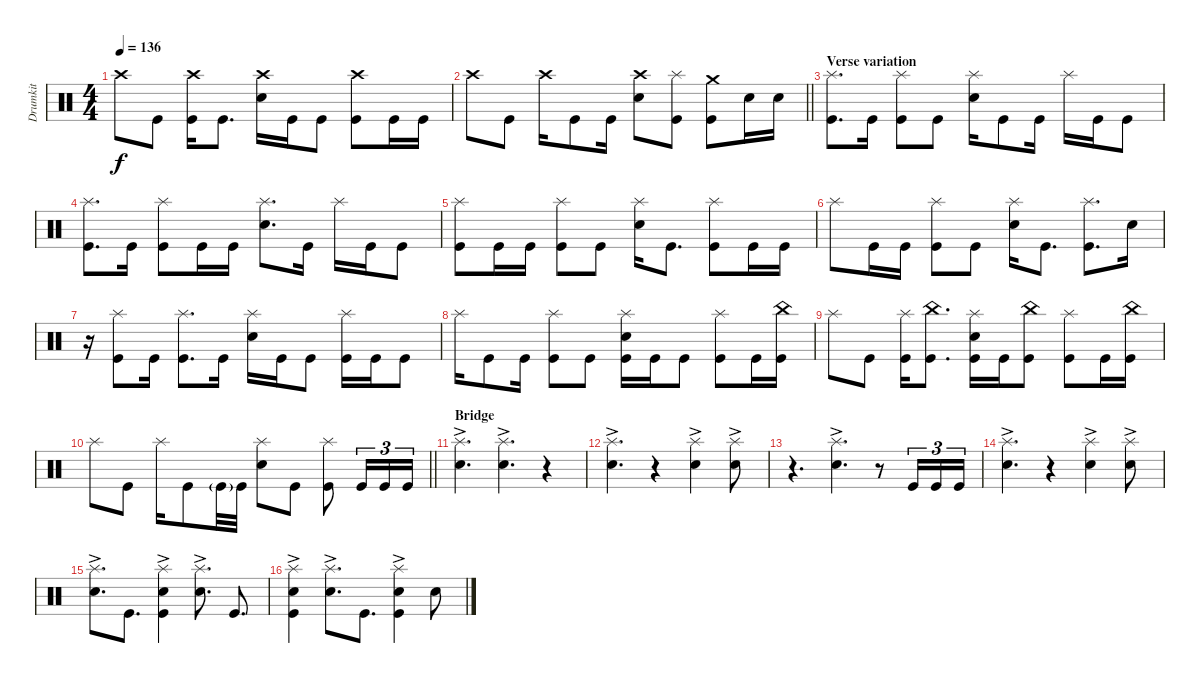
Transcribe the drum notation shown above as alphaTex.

\track ("Drumkit" "Drumkit") {instrument percussion}
\staff {score}
\articulation defaults
\ts (4 4)
\tempo 136
\clef neutral
\ks c "Crash high (hit)".8{dy f} "Kick (hit)".8
("Crash high (hit)" "Kick (hit)").16 "Kick (hit)".8{d} ("Crash high (hit)" "Snare (hit) 2").16 "Kick (hit)".16 "Kick (hit)".8 ("Crash high (hit)" "Kick (hit)").8 "Kick (hit)".16 "Kick (hit)".16 |
\barLineRight lightlight "Crash high (hit)".8 "Kick (hit)".8 "Crash high (hit)".16 "Kick (hit)".8 "Kick (hit)".16
("Crash high (hit)" "Snare (hit) 2").8 ("Kick (hit)" "Splash (hit)").8 ("Kick (hit)" "Crash medium (hit)").8 "Snare (hit) 2".16 "Snare (hit) 2".16 |
\section ("" "Verse variation")
("Splash (hit)" "Kick (hit)").8{d} "Kick (hit)".16 ("Splash (hit)" "Kick (hit)").8 "Kick (hit)".8 ("Splash (hit)" "Snare (hit) 2").16 "Kick (hit)".8 "Kick (hit)".16 "Splash (hit)".16 "Kick (hit)".16 "Kick (hit)".8 |
("Splash (hit)" "Kick (hit)").8{d} "Kick (hit)".16 ("Splash (hit)" "Kick (hit)").8 "Kick (hit)".16 "Kick (hit)".16 ("Splash (hit)" "Snare (hit) 2").8{d} "Kick (hit)".16 "Splash (hit)".16 "Kick (hit)".16 "Kick (hit)".8 |
("Splash (hit)" "Kick (hit)").8 "Kick (hit)".16 "Kick (hit)".16 ("Splash (hit)" "Kick (hit)").8 "Kick (hit)".8 ("Splash (hit)" "Snare (hit) 2").16 "Kick (hit)".8{d} ("Splash (hit)" "Kick (hit)").8 "Kick (hit)".16 "Kick (hit)".16 |
"Splash (hit)".8 "Kick (hit)".16 "Kick (hit)".16 ("Splash (hit)" "Kick (hit)").8 "Kick (hit)".8 ("Splash (hit)" "Snare (hit) 2").16 "Kick (hit)".8{d} ("Splash (hit)" "Kick (hit)").8{d} "Snare (hit) 2".16 |
r.16 ("Kick (hit)" "Splash (hit)").8 "Kick (hit)".16 ("Kick (hit)" "Splash (hit)").8{d} "Kick (hit)".16 ("Snare (hit) 2" "Splash (hit)").16 "Kick (hit)".16 "Kick (hit)".8 ("Kick (hit)" "Splash (hit)").16 "Kick (hit)".16 "Kick (hit)".8 |
"Splash (hit)".16 "Kick (hit)".8 "Kick (hit)".16 ("Kick (hit)" "Splash (hit)").8 "Kick (hit)".8 ("Kick (hit)" "Splash (hit)" "Snare (hit) 2").16 "Kick (hit)".16 "Kick (hit)".8 ("Kick (hit)" "Splash (hit)").8 "Kick (hit)".16 ("Kick (hit)" "China (hit)").16 |
"Splash (hit)".8 "Kick (hit)".8 ("Kick (hit)" "Splash (hit)").16 ("Kick (hit)" "China (hit)").8{d} ("Kick (hit)" "Splash (hit)" "Snare (hit) 2").16 "Kick (hit)".16 ("Kick (hit)" "China (hit)").8 ("Kick (hit)" "Splash (hit)").8 "Kick (hit)".16 ("Kick (hit)" "China (hit)").16 |
\barLineRight lightlight "Splash (hit)".8 "Kick (hit)".8 "Splash (hit)".16 "Kick (hit)".8 "Kick (hit)"{g}.32 "Kick (hit)".32
("Splash (hit)" "Snare (hit) 2").8 "Kick (hit)".8 ("Kick (hit)" "Splash (hit)").8 "Kick (hit)".16{tu (3 2)} "Kick (hit)".16{tu (3 2)} "Kick (hit)".16{tu (3 2)} |
\section ("" "Bridge")
("Splash (hit)" "Snare (hit) 2"{ac}).4{d} ("Splash (hit)" "Snare (hit) 2"{ac}).4{d} r.4 |
("Splash (hit)" "Snare (hit) 2"{ac}).4{d} r.4 ("Splash (hit)" "Snare (hit) 2"{ac}).4 ("Splash (hit)" "Snare (hit) 2"{ac}).8 |
r.4{d} ("Splash (hit)" "Snare (hit) 2"{ac}).4{d} r.8 "Kick (hit)".16{tu (3 2)} "Kick (hit)".16{tu (3 2)} "Kick (hit)".16{tu (3 2)} |
("Splash (hit)" "Snare (hit) 2"{ac}).4{d} r.4 ("Splash (hit)" "Snare (hit) 2"{ac}).4 ("Splash (hit)" "Snare (hit) 2"{ac}).8 |
("Splash (hit)" "Snare (hit) 2"{ac}).8{d} "Kick (hit)".8{d} ("Snare (hit) 2"{ac} "Kick (hit)" "Splash (hit)").4 ("Splash (hit)" "Snare (hit) 2"{ac}).8{d} "Kick (hit)".8{d} |
("Snare (hit) 2"{ac} "Kick (hit)" "Splash (hit)").4 ("Splash (hit)" "Snare (hit) 2"{ac}).8{d} "Kick (hit)".8{d} ("Snare (hit) 2"{ac} "Kick (hit)" "Splash (hit)").4 "Snare (hit) 2".8
